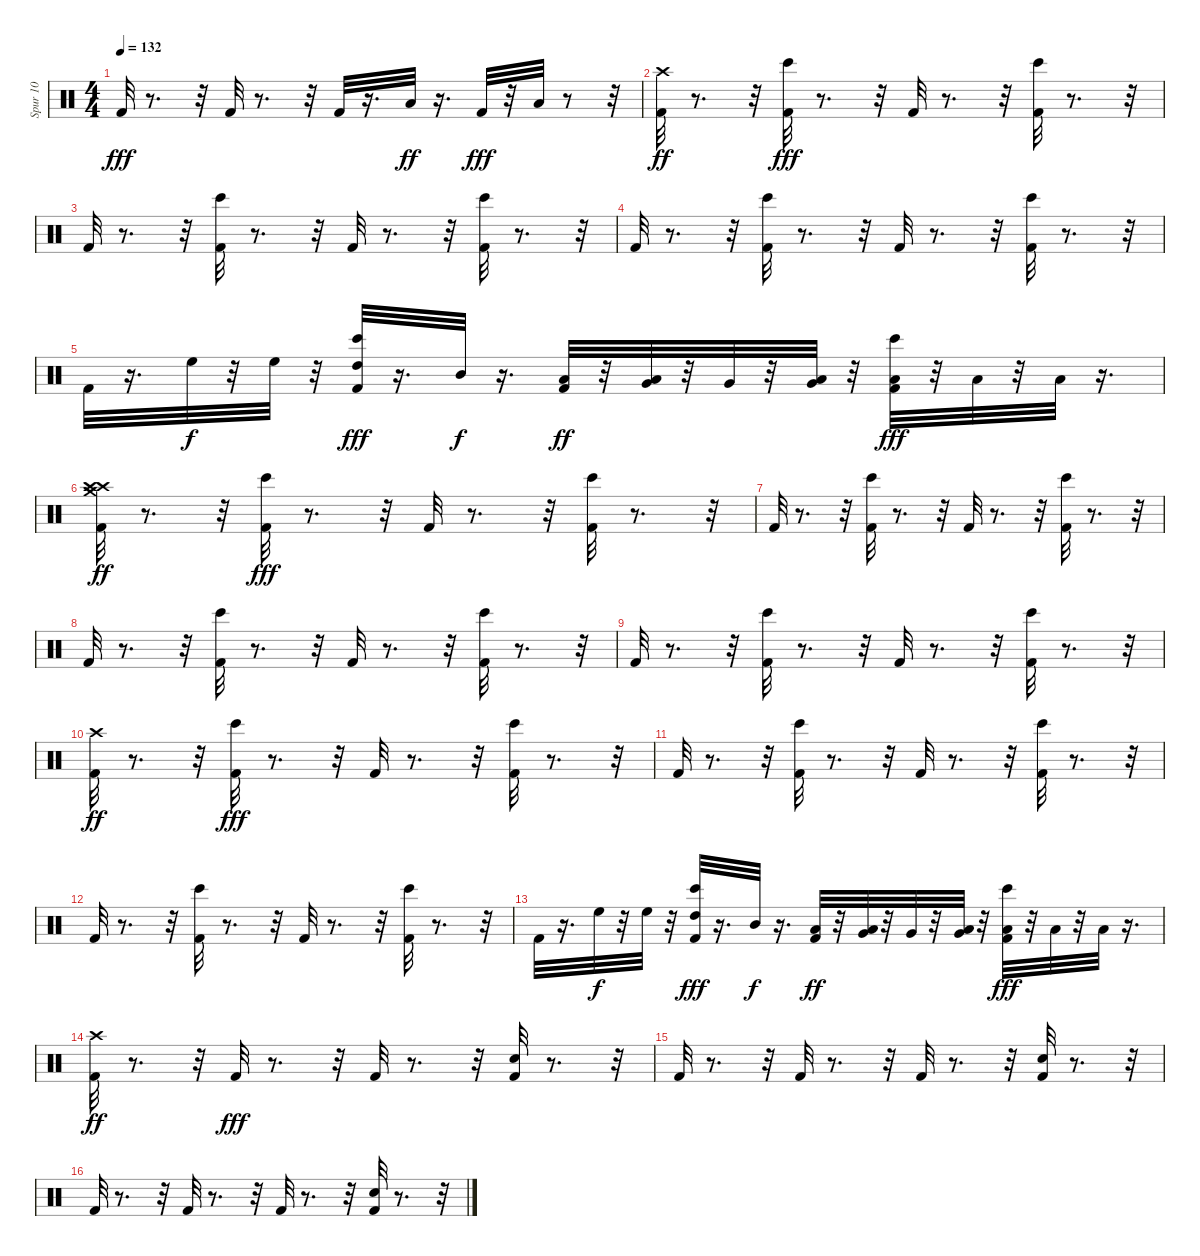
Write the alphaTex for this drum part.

\track ("Spur 10" "Spur 10") {instrument percussion}
\staff {score}
\articulation defaults
\ts (4 4)
\tempo 132
\clef neutral
\ks c "Kick (hit) 2".32{dy fff}
r.8{d} r.32 "Kick (hit) 2".32 r.8{d} r.32 "Kick (hit) 2".32 r.16{d} "Low Tom (hit)".32{dy ff} r.16{d} "Kick (hit) 2".32{dy fff} r.32 "Low Floor Tom (hit)".32 r.8 r.32 |
("Kick (hit) 2" "Crash high (hit)").32{dy ff} r.8{d} r.32 ("Bongo High (hit)" "Kick (hit) 2").32{dy fff} r.8{d} r.32 "Kick (hit) 2".32 r.8{d} r.32 ("Bongo High (hit)" "Kick (hit) 2").32 r.8{d} r.32 |
"Kick (hit) 2".32 r.8{d} r.32 ("Bongo High (hit)" "Kick (hit) 2").32 r.8{d} r.32 "Kick (hit) 2".32 r.8{d} r.32 ("Bongo High (hit)" "Kick (hit) 2").32 r.8{d} r.32 |
"Kick (hit) 2".32 r.8{d} r.32 ("Bongo High (hit)" "Kick (hit) 2").32 r.8{d} r.32 "Kick (hit) 2".32 r.8{d} r.32 ("Bongo High (hit)" "Kick (hit) 2").32 r.8{d} r.32 |
"Kick (hit) 2".32 r.16{d} "High Floor Tom (hit)".32{dy f} r.32 "High Floor Tom (hit)".32 r.32 ("Bongo High (hit)" "Kick (hit) 2" "High Tom (hit)").32{dy fff} r.16{d} "Mid Tom (hit)".32{dy f} r.16{d} ("Kick (hit) 2" "Low Tom (hit)").32{dy ff} r.32 ("Very Low Tom (hit)" "Low Tom (hit)").32 r.32 "Very Low Tom (hit)".32 r.32 ("Very Low Tom (hit)" "Low Floor Tom (hit)").32 r.32 ("Bongo High (hit)" "Kick (hit) 2" "Low Floor Tom (hit)").32{dy fff} r.32 "Low Floor Tom (hit)".32 r.32 "Low Floor Tom (hit)".32 r.16{d} |
("Crash medium (hit)" "Kick (hit) 2" "Crash high (hit)" "Crash high (hit)").32{dy ff} r.8{d} r.32 ("Bongo High (hit)" "Kick (hit) 2").32{dy fff} r.8{d} r.32 "Kick (hit) 2".32 r.8{d} r.32 ("Bongo High (hit)" "Kick (hit) 2").32 r.8{d} r.32 |
"Kick (hit) 2".32 r.8{d} r.32 ("Bongo High (hit)" "Kick (hit) 2").32 r.8{d} r.32 "Kick (hit) 2".32 r.8{d} r.32 ("Bongo High (hit)" "Kick (hit) 2").32 r.8{d} r.32 |
"Kick (hit) 2".32 r.8{d} r.32 ("Bongo High (hit)" "Kick (hit) 2").32 r.8{d} r.32 "Kick (hit) 2".32 r.8{d} r.32 ("Bongo High (hit)" "Kick (hit) 2").32 r.8{d} r.32 |
"Kick (hit) 2".32 r.8{d} r.32 ("Bongo High (hit)" "Kick (hit) 2").32 r.8{d} r.32 "Kick (hit) 2".32 r.8{d} r.32 ("Bongo High (hit)" "Kick (hit) 2").32 r.8{d} r.32 |
("Kick (hit) 2" "Crash high (hit)").32{dy ff} r.8{d} r.32 ("Bongo High (hit)" "Kick (hit) 2").32{dy fff} r.8{d} r.32 "Kick (hit) 2".32 r.8{d} r.32 ("Bongo High (hit)" "Kick (hit) 2").32 r.8{d} r.32 |
"Kick (hit) 2".32 r.8{d} r.32 ("Bongo High (hit)" "Kick (hit) 2").32 r.8{d} r.32 "Kick (hit) 2".32 r.8{d} r.32 ("Bongo High (hit)" "Kick (hit) 2").32 r.8{d} r.32 |
"Kick (hit) 2".32 r.8{d} r.32 ("Bongo High (hit)" "Kick (hit) 2").32 r.8{d} r.32 "Kick (hit) 2".32 r.8{d} r.32 ("Bongo High (hit)" "Kick (hit) 2").32 r.8{d} r.32 |
"Kick (hit) 2".32 r.16{d} "High Floor Tom (hit)".32{dy f} r.32 "High Floor Tom (hit)".32 r.32 ("Bongo High (hit)" "Kick (hit) 2" "High Tom (hit)").32{dy fff} r.16{d} "Mid Tom (hit)".32{dy f} r.16{d} ("Kick (hit) 2" "Low Tom (hit)").32{dy ff} r.32 ("Very Low Tom (hit)" "Low Tom (hit)").32 r.32 "Very Low Tom (hit)".32 r.32 ("Very Low Tom (hit)" "Low Floor Tom (hit)").32 r.32 ("Bongo High (hit)" "Kick (hit) 2" "Low Floor Tom (hit)").32{dy fff} r.32 "Low Floor Tom (hit)".32 r.32 "Low Floor Tom (hit)".32 r.16{d} |
("Kick (hit) 2" "Crash high (hit)").32{dy ff} r.8{d} r.32 "Kick (hit) 2".32{dy fff} r.8{d} r.32 "Kick (hit) 2".32 r.8{d} r.32 ("Electric Snare (hit)" "Kick (hit) 2").32 r.8{d} r.32 |
"Kick (hit) 2".32 r.8{d} r.32 "Kick (hit) 2".32 r.8{d} r.32 "Kick (hit) 2".32 r.8{d} r.32 ("Electric Snare (hit)" "Kick (hit) 2").32 r.8{d} r.32 |
"Kick (hit) 2".32 r.8{d} r.32 "Kick (hit) 2".32 r.8{d} r.32 "Kick (hit) 2".32 r.8{d} r.32 ("Electric Snare (hit)" "Kick (hit) 2").32 r.8{d} r.32
